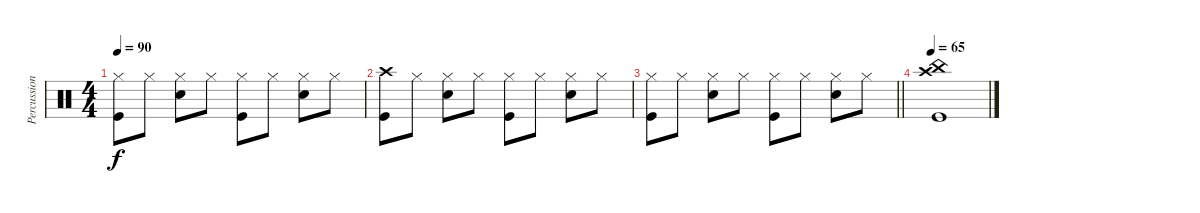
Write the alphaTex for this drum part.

\track ("Percussioni" "Percussion") {instrument percussion}
\staff {score}
\articulation defaults
\ts (4 4)
\tempo 90
\clef neutral
\ks c
("Hi-Hat (closed)" "Kick (hit)").8{dy f} "Hi-Hat (closed)".8 ("Hi-Hat (closed)" "Snare (hit) 2").8 "Hi-Hat (closed)".8 ("Hi-Hat (closed)" "Kick (hit)").8 "Hi-Hat (closed)".8 ("Hi-Hat (closed)" "Snare (hit) 2").8 "Hi-Hat (closed)".8 |
("Crash high (hit)" "Kick (hit)").8 "Hi-Hat (closed)".8 ("Hi-Hat (closed)" "Snare (hit) 2").8 "Hi-Hat (closed)".8 ("Hi-Hat (closed)" "Kick (hit)").8 "Hi-Hat (closed)".8 ("Hi-Hat (closed)" "Snare (hit) 2").8 "Hi-Hat (closed)".8 |
\barLineRight lightlight
("Hi-Hat (closed)" "Kick (hit)").8 "Hi-Hat (closed)".8 ("Hi-Hat (closed)" "Snare (hit) 2").8 "Hi-Hat (closed)".8 ("Hi-Hat (closed)" "Kick (hit)").8 "Hi-Hat (closed)".8 ("Hi-Hat (closed)" "Snare (hit) 2").8 "Hi-Hat (closed)".8 |
\tempo 65
("China (hit)" "Crash high (hit)" "Kick (hit)").1
